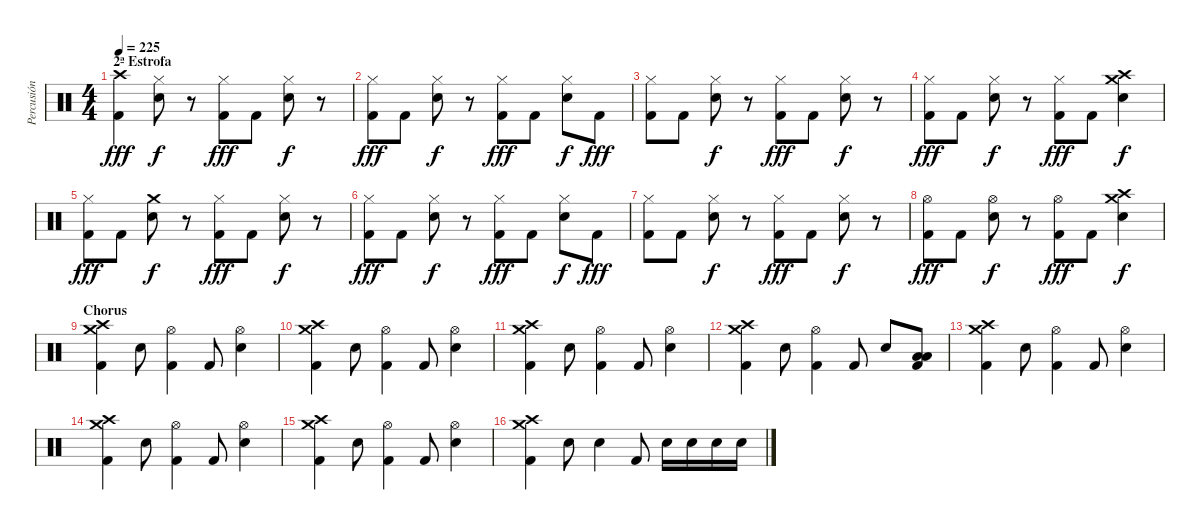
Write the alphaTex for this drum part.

\track ("Percusión" "Percusión") {instrument percussion}
\staff {score}
\articulation defaults
\ts (4 4)
\section ("" "2ª Estrofa")
\tempo 225
\clef neutral
\ks c
("Crash high (hit)" "Kick (hit) 2").4{dy fff} ("Electric Snare (hit)" "Hi-Hat (closed)").8{dy f} r.8 ("Kick (hit) 2" "Hi-Hat (closed)").8{dy fff} "Kick (hit) 2".8 ("Electric Snare (hit)" "Hi-Hat (closed)").8{dy f} r.8 |
("Kick (hit) 2" "Hi-Hat (closed)").8{dy fff} "Kick (hit) 2".8 ("Electric Snare (hit)" "Hi-Hat (closed)").8{dy f} r.8 ("Kick (hit) 2" "Hi-Hat (closed)").8{dy fff} "Kick (hit) 2".8 ("Electric Snare (hit)" "Hi-Hat (closed)").8{dy f} "Kick (hit) 2".8{dy fff} |
("Kick (hit) 2" "Hi-Hat (closed)").8 "Kick (hit) 2".8 ("Electric Snare (hit)" "Hi-Hat (closed)").8{dy f} r.8 ("Kick (hit) 2" "Hi-Hat (closed)").8{dy fff} "Kick (hit) 2".8 ("Electric Snare (hit)" "Hi-Hat (closed)").8{dy f} r.8 |
("Kick (hit) 2" "Hi-Hat (closed)").8{dy fff} "Kick (hit) 2".8 ("Electric Snare (hit)" "Hi-Hat (closed)").8{dy f} r.8 ("Kick (hit) 2" "Hi-Hat (closed)").8{dy fff} "Kick (hit) 2".8 ("Electric Snare (hit)" "Crash medium (hit)" "Crash high (hit)").4{dy f} |
("Kick (hit) 2" "Hi-Hat (closed)").8{dy fff} "Kick (hit) 2".8 ("Crash medium (hit)" "Electric Snare (hit)").8{dy f} r.8 ("Kick (hit) 2" "Hi-Hat (closed)").8{dy fff} "Kick (hit) 2".8 ("Electric Snare (hit)" "Hi-Hat (closed)").8{dy f} r.8 |
("Kick (hit) 2" "Hi-Hat (closed)").8{dy fff} "Kick (hit) 2".8 ("Electric Snare (hit)" "Hi-Hat (closed)").8{dy f} r.8 ("Kick (hit) 2" "Hi-Hat (closed)").8{dy fff} "Kick (hit) 2".8 ("Electric Snare (hit)" "Hi-Hat (closed)").8{dy f} "Kick (hit) 2".8{dy fff} |
("Kick (hit) 2" "Hi-Hat (closed)").8 "Kick (hit) 2".8 ("Electric Snare (hit)" "Hi-Hat (closed)").8{dy f} r.8 ("Kick (hit) 2" "Hi-Hat (closed)").8{dy fff} "Kick (hit) 2".8 ("Electric Snare (hit)" "Hi-Hat (closed)").8{dy f} r.8 |
("Kick (hit) 2" "Hi-Hat (open)").8{dy fff} "Kick (hit) 2".8 ("Electric Snare (hit)" "Hi-Hat (open)").8{dy f} r.8 ("Kick (hit) 2" "Hi-Hat (open)").8{dy fff} "Kick (hit) 2".8 ("Electric Snare (hit)" "Crash medium (hit)" "Crash high (hit)").4{dy f} |
\section ("" "Chorus")
("Kick (hit) 2" "Crash medium (hit)" "Crash high (hit)").4 "Electric Snare (hit)".8 ("Kick (hit) 2" "Hi-Hat (open)").4 "Kick (hit) 2".8 ("Electric Snare (hit)" "Hi-Hat (open)").4 |
("Kick (hit) 2" "Crash medium (hit)" "Crash high (hit)").4 "Electric Snare (hit)".8 ("Kick (hit) 2" "Hi-Hat (open)").4 "Kick (hit) 2".8 ("Electric Snare (hit)" "Hi-Hat (open)").4 |
("Kick (hit) 2" "Crash medium (hit)" "Crash high (hit)").4 "Electric Snare (hit)".8 ("Kick (hit) 2" "Hi-Hat (open)").4 "Kick (hit) 2".8 ("Electric Snare (hit)" "Hi-Hat (open)").4 |
("Kick (hit) 2" "Crash medium (hit)" "Crash high (hit)").4 "Electric Snare (hit)".8 ("Kick (hit) 2" "Hi-Hat (open)").4 "Kick (hit) 2".8 "Electric Snare (hit)".8 ("Kick (hit) 2" "Low Tom (hit)" "Low Tom (hit)").8 |
("Kick (hit) 2" "Crash medium (hit)" "Crash high (hit)").4 "Electric Snare (hit)".8 ("Kick (hit) 2" "Hi-Hat (open)").4 "Kick (hit) 2".8 ("Electric Snare (hit)" "Hi-Hat (open)").4 |
("Kick (hit) 2" "Crash medium (hit)" "Crash high (hit)").4 "Electric Snare (hit)".8 ("Kick (hit) 2" "Hi-Hat (open)").4 "Kick (hit) 2".8 ("Electric Snare (hit)" "Hi-Hat (open)").4 |
("Kick (hit) 2" "Crash medium (hit)" "Crash high (hit)").4 "Electric Snare (hit)".8 ("Kick (hit) 2" "Hi-Hat (open)").4 "Kick (hit) 2".8 ("Electric Snare (hit)" "Hi-Hat (open)").4 |
("Kick (hit) 2" "Crash medium (hit)" "Crash high (hit)").4 "Electric Snare (hit)".8 "Electric Snare (hit)".4 "Kick (hit) 2".8 "Electric Snare (hit)".16 "Electric Snare (hit)".16 "Electric Snare (hit)".16 "Electric Snare (hit)".16
